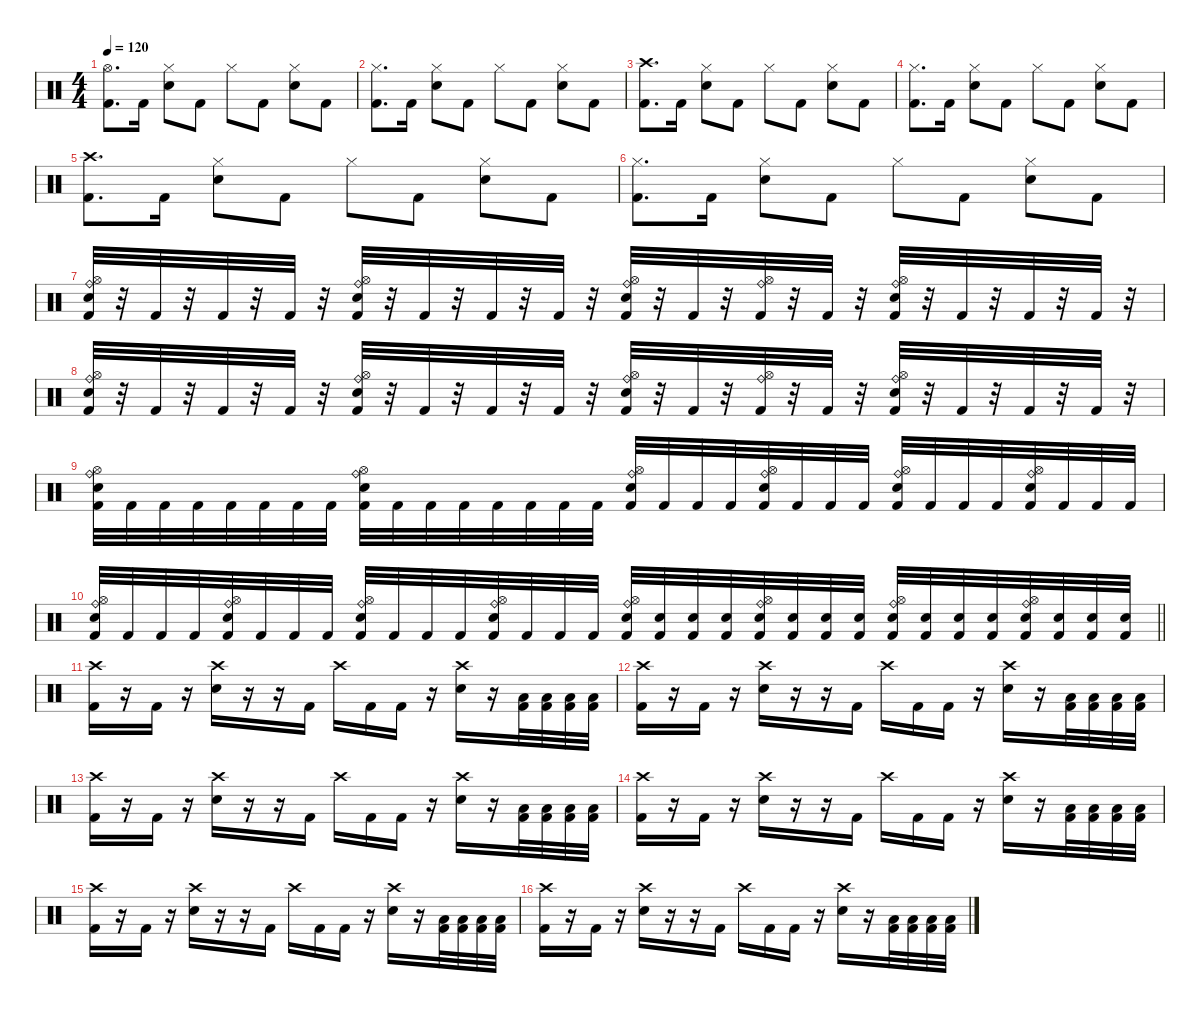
\defaultSystemsLayout 4
\hideDynamics
\bracketExtendMode nobrackets
\singleTrackTrackNamePolicy hidden
\multiTrackTrackNamePolicy hidden
\firstSystemTrackNameMode fullname
\firstSystemTrackNameOrientation horizontal
\otherSystemsTrackNameOrientation horizontal
\track ("DRUMS" "drm.") {defaultSystemsLayout 4 instrument percussion}
\staff {score}
\articulation defaults
\ts (4 4)
\tempo 120
\clef neutral
\ks c
("Kick (hit) 2" "Hi-Hat (open)").8{d dy f beam Down} "Kick (hit) 2".16{beam Down} ("Snare (hit) 2" "Hi-Hat (closed)").8{beam Down} "Kick (hit) 2".8{beam Down} "Hi-Hat (closed)".8{beam Down} "Kick (hit) 2".8{beam Down} ("Snare (hit) 2" "Hi-Hat (closed)").8{beam Down} "Kick (hit) 2".8{beam Down} |
("Kick (hit) 2" "Hi-Hat (closed)").8{d beam Down} "Kick (hit) 2".16{beam Down} ("Snare (hit) 2" "Hi-Hat (closed)").8{beam Down} "Kick (hit) 2".8{beam Down} "Hi-Hat (closed)".8{beam Down} "Kick (hit) 2".8{beam Down} ("Snare (hit) 2" "Hi-Hat (closed)").8{beam Down} "Kick (hit) 2".8{beam Down} |
("Kick (hit) 2" "Crash high (hit)").8{d beam Down} "Kick (hit) 2".16{beam Down} ("Snare (hit) 2" "Hi-Hat (closed)").8{beam Down} "Kick (hit) 2".8{beam Down} "Hi-Hat (closed)".8{beam Down} "Kick (hit) 2".8{beam Down} ("Snare (hit) 2" "Hi-Hat (closed)").8{beam Down} "Kick (hit) 2".8{beam Down} |
("Kick (hit) 2" "Hi-Hat (closed)").8{d beam Down} "Kick (hit) 2".16{beam Down} ("Snare (hit) 2" "Hi-Hat (closed)").8{beam Down} "Kick (hit) 2".8{beam Down} "Hi-Hat (closed)".8{beam Down} "Kick (hit) 2".8{beam Down} ("Snare (hit) 2" "Hi-Hat (closed)").8{beam Down} "Kick (hit) 2".8{beam Down} |
("Kick (hit) 2" "Crash high (hit)").8{d beam Down} "Kick (hit) 2".16{beam Down} ("Snare (hit) 2" "Hi-Hat (closed)").8{beam Down} "Kick (hit) 2".8{beam Down} "Hi-Hat (closed)".8{beam Down} "Kick (hit) 2".8{beam Down} ("Snare (hit) 2" "Hi-Hat (closed)").8{beam Down} "Kick (hit) 2".8{beam Down} |
("Kick (hit) 2" "Hi-Hat (closed)").8{d beam Down} "Kick (hit) 2".16{beam Down} ("Snare (hit) 2" "Hi-Hat (closed)").8{beam Down} "Kick (hit) 2".8{beam Down} "Hi-Hat (closed)".8{beam Down} "Kick (hit) 2".8{beam Down} ("Snare (hit) 2" "Hi-Hat (closed)").8{beam Down} "Kick (hit) 2".8{beam Down} |
("Hi-Hat (open)" "Ride (bell)" "Kick (hit) 2" "Snare (hit) 2").32{beam Up} r.32{beam Up} "Kick (hit) 2".32{beam Up} r.32{beam Up} "Kick (hit) 2".32{beam Up} r.32{beam Up} "Kick (hit) 2".32{beam Up} r.32{beam Up} ("Hi-Hat (open)" "Ride (bell)" "Kick (hit) 2" "Snare (hit) 2").32{beam Up} r.32{beam Up} "Kick (hit) 2".32{beam Up} r.32{beam Up} "Kick (hit) 2".32{beam Up} r.32{beam Up} "Kick (hit) 2".32{beam Up} r.32{beam Up} ("Hi-Hat (open)" "Ride (bell)" "Kick (hit) 2" "Snare (hit) 2").32{beam Up} r.32{beam Up} "Kick (hit) 2".32{beam Up} r.32{beam Up} ("Hi-Hat (open)" "Ride (bell)" "Kick (hit) 2").32{beam Up} r.32{beam Up} "Kick (hit) 2".32{beam Up} r.32{beam Up} ("Hi-Hat (open)" "Ride (bell)" "Kick (hit) 2" "Snare (hit) 2").32{beam Up} r.32{beam Up} "Kick (hit) 2".32{beam Up} r.32{beam Up} "Kick (hit) 2".32{beam Up} r.32{beam Up} "Kick (hit) 2".32{beam Up} r.32{beam Up} |
("Hi-Hat (open)" "Ride (bell)" "Kick (hit) 2" "Snare (hit) 2").32{beam Up} r.32{beam Up} "Kick (hit) 2".32{beam Up} r.32{beam Up} "Kick (hit) 2".32{beam Up} r.32{beam Up} "Kick (hit) 2".32{beam Up} r.32{beam Up} ("Hi-Hat (open)" "Ride (bell)" "Kick (hit) 2" "Snare (hit) 2").32{beam Up} r.32{beam Up} "Kick (hit) 2".32{beam Up} r.32{beam Up} "Kick (hit) 2".32{beam Up} r.32{beam Up} "Kick (hit) 2".32{beam Up} r.32{beam Up} ("Hi-Hat (open)" "Ride (bell)" "Kick (hit) 2" "Snare (hit) 2").32{beam Up} r.32{beam Up} "Kick (hit) 2".32{beam Up} r.32{beam Up} ("Hi-Hat (open)" "Ride (bell)" "Kick (hit) 2").32{beam Up} r.32{beam Up} "Kick (hit) 2".32{beam Up} r.32{beam Up} ("Hi-Hat (open)" "Ride (bell)" "Kick (hit) 2" "Snare (hit) 2").32{beam Up} r.32{beam Up} "Kick (hit) 2".32{beam Up} r.32{beam Up} "Kick (hit) 2".32{beam Up} r.32{beam Up} "Kick (hit) 2".32{beam Up} r.32{beam Up} |
("Hi-Hat (open)" "Ride (bell)" "Kick (hit) 2" "Snare (hit) 2").32{beam Down} "Kick (hit) 2".32{beam Down} "Kick (hit) 2".32{beam Down} "Kick (hit) 2".32{beam Down} "Kick (hit) 2".32{beam Down} "Kick (hit) 2".32{beam Down} "Kick (hit) 2".32{beam Down} "Kick (hit) 2".32{beam Down} ("Hi-Hat (open)" "Ride (bell)" "Kick (hit) 2" "Snare (hit) 2").32{beam Down} "Kick (hit) 2".32{beam Down} "Kick (hit) 2".32{beam Down} "Kick (hit) 2".32{beam Down} "Kick (hit) 2".32{beam Down} "Kick (hit) 2".32{beam Down} "Kick (hit) 2".32{beam Down} "Kick (hit) 2".32{beam Down} ("Hi-Hat (open)" "Ride (bell)" "Kick (hit) 2" "Snare (hit) 2").32{beam Up} "Kick (hit) 2".32{beam Up} "Kick (hit) 2".32{beam Up} "Kick (hit) 2".32{beam Up} ("Hi-Hat (open)" "Ride (bell)" "Kick (hit) 2" "Snare (hit) 2").32{beam Up} "Kick (hit) 2".32{beam Up} "Kick (hit) 2".32{beam Up} "Kick (hit) 2".32{beam Up} ("Hi-Hat (open)" "Ride (bell)" "Kick (hit) 2" "Snare (hit) 2").32{beam Up} "Kick (hit) 2".32{beam Up} "Kick (hit) 2".32{beam Up} "Kick (hit) 2".32{beam Up} ("Hi-Hat (open)" "Ride (bell)" "Kick (hit) 2" "Snare (hit) 2").32{beam Up} "Kick (hit) 2".32{beam Up} "Kick (hit) 2".32{beam Up} "Kick (hit) 2".32{beam Up} |
\barLineRight lightlight
("Hi-Hat (open)" "Ride (bell)" "Kick (hit) 2" "Snare (hit) 2").32{beam Up} "Kick (hit) 2".32{beam Up} "Kick (hit) 2".32{beam Up} "Kick (hit) 2".32{beam Up} ("Hi-Hat (open)" "Ride (bell)" "Kick (hit) 2" "Snare (hit) 2").32{beam Up} "Kick (hit) 2".32{beam Up} "Kick (hit) 2".32{beam Up} "Kick (hit) 2".32{beam Up} ("Hi-Hat (open)" "Ride (bell)" "Kick (hit) 2" "Snare (hit) 2").32{beam Up} "Kick (hit) 2".32{beam Up} "Kick (hit) 2".32{beam Up} "Kick (hit) 2".32{beam Up} ("Hi-Hat (open)" "Ride (bell)" "Kick (hit) 2" "Snare (hit) 2").32{beam Up} "Kick (hit) 2".32{beam Up} "Kick (hit) 2".32{beam Up} "Kick (hit) 2".32{beam Up} ("Hi-Hat (open)" "Ride (bell)" "Kick (hit) 2" "Snare (hit) 2").32{beam Up} ("Kick (hit) 2" "Snare (hit) 2").32{beam Up} ("Kick (hit) 2" "Snare (hit) 2").32{beam Up} ("Kick (hit) 2" "Snare (hit) 2").32{beam Up} ("Hi-Hat (open)" "Ride (bell)" "Kick (hit) 2" "Snare (hit) 2").32{beam Up} ("Kick (hit) 2" "Snare (hit) 2").32{beam Up} ("Kick (hit) 2" "Snare (hit) 2").32{beam Up} ("Kick (hit) 2" "Snare (hit) 2").32{beam Up} ("Hi-Hat (open)" "Ride (bell)" "Kick (hit) 2" "Snare (hit) 2").32{beam Up} ("Kick (hit) 2" "Snare (hit) 2").32{beam Up} ("Kick (hit) 2" "Snare (hit) 2").32{beam Up} ("Kick (hit) 2" "Snare (hit) 2").32{beam Up} ("Hi-Hat (open)" "Ride (bell)" "Kick (hit) 2" "Snare (hit) 2").32{beam Up} ("Kick (hit) 2" "Snare (hit) 2").32{beam Up} ("Kick (hit) 2" "Snare (hit) 2").32{beam Up} ("Kick (hit) 2" "Snare (hit) 2").32{beam Up} |
("Crash high (hit)" "Kick (hit) 2").16{beam Down} r.16{beam Down} "Kick (hit) 2".16{beam Down} r.16{beam Down} ("Crash high (hit)" "Snare (hit) 2").16{beam Down} r.16{beam Down} r.16{beam Down} "Kick (hit) 2".16{beam Down} "Crash high (hit)".16{beam Down} "Kick (hit) 2".16{beam Down} "Kick (hit) 2".16{beam Down} r.16{beam Down} ("Crash high (hit)" "Snare (hit) 2").16{beam Down} r.16{beam Down} ("Low Tom (hit)" "Kick (hit) 2").32{beam Down} ("Low Tom (hit)" "Kick (hit) 2").32{beam Down} ("Low Tom (hit)" "Kick (hit) 2").32{beam Down} ("Low Tom (hit)" "Kick (hit) 2").32{beam Down} |
("Crash high (hit)" "Kick (hit) 2").16{beam Down} r.16{beam Down} "Kick (hit) 2".16{beam Down} r.16{beam Down} ("Crash high (hit)" "Snare (hit) 2").16{beam Down} r.16{beam Down} r.16{beam Down} "Kick (hit) 2".16{beam Down} "Crash high (hit)".16{beam Down} "Kick (hit) 2".16{beam Down} "Kick (hit) 2".16{beam Down} r.16{beam Down} ("Crash high (hit)" "Snare (hit) 2").16{beam Down} r.16{beam Down} ("Low Tom (hit)" "Kick (hit) 2").32{beam Down} ("Low Tom (hit)" "Kick (hit) 2").32{beam Down} ("Low Tom (hit)" "Kick (hit) 2").32{beam Down} ("Low Tom (hit)" "Kick (hit) 2").32{beam Down} |
("Crash high (hit)" "Kick (hit) 2").16{beam Down} r.16{beam Down} "Kick (hit) 2".16{beam Down} r.16{beam Down} ("Crash high (hit)" "Snare (hit) 2").16{beam Down} r.16{beam Down} r.16{beam Down} "Kick (hit) 2".16{beam Down} "Crash high (hit)".16{beam Down} "Kick (hit) 2".16{beam Down} "Kick (hit) 2".16{beam Down} r.16{beam Down} ("Crash high (hit)" "Snare (hit) 2").16{beam Down} r.16{beam Down} ("Low Tom (hit)" "Kick (hit) 2").32{beam Down} ("Low Tom (hit)" "Kick (hit) 2").32{beam Down} ("Low Tom (hit)" "Kick (hit) 2").32{beam Down} ("Low Tom (hit)" "Kick (hit) 2").32{beam Down} |
("Crash high (hit)" "Kick (hit) 2").16{beam Down} r.16{beam Down} "Kick (hit) 2".16{beam Down} r.16{beam Down} ("Crash high (hit)" "Snare (hit) 2").16{beam Down} r.16{beam Down} r.16{beam Down} "Kick (hit) 2".16{beam Down} "Crash high (hit)".16{beam Down} "Kick (hit) 2".16{beam Down} "Kick (hit) 2".16{beam Down} r.16{beam Down} ("Crash high (hit)" "Snare (hit) 2").16{beam Down} r.16{beam Down} ("Low Tom (hit)" "Kick (hit) 2").32{beam Down} ("Low Tom (hit)" "Kick (hit) 2").32{beam Down} ("Low Tom (hit)" "Kick (hit) 2").32{beam Down} ("Low Tom (hit)" "Kick (hit) 2").32{beam Down} |
("Crash high (hit)" "Kick (hit) 2").16{beam Down} r.16{beam Down} "Kick (hit) 2".16{beam Down} r.16{beam Down} ("Crash high (hit)" "Snare (hit) 2").16{beam Down} r.16{beam Down} r.16{beam Down} "Kick (hit) 2".16{beam Down} "Crash high (hit)".16{beam Down} "Kick (hit) 2".16{beam Down} "Kick (hit) 2".16{beam Down} r.16{beam Down} ("Crash high (hit)" "Snare (hit) 2").16{beam Down} r.16{beam Down} ("Low Tom (hit)" "Kick (hit) 2").32{beam Down} ("Low Tom (hit)" "Kick (hit) 2").32{beam Down} ("Low Tom (hit)" "Kick (hit) 2").32{beam Down} ("Low Tom (hit)" "Kick (hit) 2").32{beam Down} |
("Crash high (hit)" "Kick (hit) 2").16{beam Down} r.16{beam Down} "Kick (hit) 2".16{beam Down} r.16{beam Down} ("Crash high (hit)" "Snare (hit) 2").16{beam Down} r.16{beam Down} r.16{beam Down} "Kick (hit) 2".16{beam Down} "Crash high (hit)".16{beam Down} "Kick (hit) 2".16{beam Down} "Kick (hit) 2".16{beam Down} r.16{beam Down} ("Crash high (hit)" "Snare (hit) 2").16{beam Down} r.16{beam Down} ("Low Tom (hit)" "Kick (hit) 2").32{beam Down} ("Low Tom (hit)" "Kick (hit) 2").32{beam Down} ("Low Tom (hit)" "Kick (hit) 2").32{beam Down} ("Low Tom (hit)" "Kick (hit) 2").32{beam Down}
